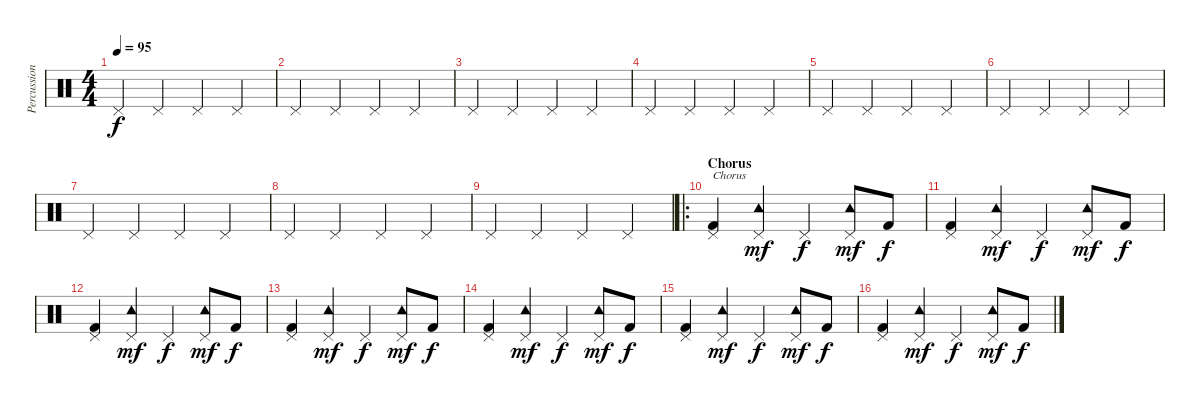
\track ("Percussion" "Percussion") {instrument percussion}
\staff {score}
\articulation defaults
\ts (4 4)
\tempo 95
\clef neutral
\ks c "Pedal Hi-Hat (hit)".4{dy f} "Pedal Hi-Hat (hit)".4 "Pedal Hi-Hat (hit)".4 "Pedal Hi-Hat (hit)".4
|
"Pedal Hi-Hat (hit)".4 "Pedal Hi-Hat (hit)".4 "Pedal Hi-Hat (hit)".4 "Pedal Hi-Hat (hit)".4 |
"Pedal Hi-Hat (hit)".4 "Pedal Hi-Hat (hit)".4 "Pedal Hi-Hat (hit)".4 "Pedal Hi-Hat (hit)".4 |
"Pedal Hi-Hat (hit)".4 "Pedal Hi-Hat (hit)".4 "Pedal Hi-Hat (hit)".4 "Pedal Hi-Hat (hit)".4 |
"Pedal Hi-Hat (hit)".4 "Pedal Hi-Hat (hit)".4 "Pedal Hi-Hat (hit)".4 "Pedal Hi-Hat (hit)".4 |
"Pedal Hi-Hat (hit)".4 "Pedal Hi-Hat (hit)".4 "Pedal Hi-Hat (hit)".4 "Pedal Hi-Hat (hit)".4 |
"Pedal Hi-Hat (hit)".4 "Pedal Hi-Hat (hit)".4 "Pedal Hi-Hat (hit)".4 "Pedal Hi-Hat (hit)".4 |
"Pedal Hi-Hat (hit)".4 "Pedal Hi-Hat (hit)".4 "Pedal Hi-Hat (hit)".4 "Pedal Hi-Hat (hit)".4 |
"Pedal Hi-Hat (hit)".4 "Pedal Hi-Hat (hit)".4 "Pedal Hi-Hat (hit)".4 "Pedal Hi-Hat (hit)".4 |
\ro
\section ("" "Chorus")
("Pedal Hi-Hat (hit)" "Kick (hit) 2").4{txt "Chorus"} ("Tambourine (hit)" "Pedal Hi-Hat (hit)").4{dy mf} "Pedal Hi-Hat (hit)".4{dy f} ("Tambourine (hit)" "Pedal Hi-Hat (hit)").8{dy mf} "Kick (hit) 2".8{dy f} |
("Pedal Hi-Hat (hit)" "Kick (hit) 2").4 ("Tambourine (hit)" "Pedal Hi-Hat (hit)").4{dy mf} "Pedal Hi-Hat (hit)".4{dy f} ("Tambourine (hit)" "Pedal Hi-Hat (hit)").8{dy mf} "Kick (hit) 2".8{dy f} |
("Pedal Hi-Hat (hit)" "Kick (hit) 2").4 ("Tambourine (hit)" "Pedal Hi-Hat (hit)").4{dy mf} "Pedal Hi-Hat (hit)".4{dy f} ("Tambourine (hit)" "Pedal Hi-Hat (hit)").8{dy mf} "Kick (hit) 2".8{dy f} |
("Pedal Hi-Hat (hit)" "Kick (hit) 2").4 ("Tambourine (hit)" "Pedal Hi-Hat (hit)").4{dy mf} "Pedal Hi-Hat (hit)".4{dy f} ("Tambourine (hit)" "Pedal Hi-Hat (hit)").8{dy mf} "Kick (hit) 2".8{dy f} |
("Pedal Hi-Hat (hit)" "Kick (hit) 2").4 ("Tambourine (hit)" "Pedal Hi-Hat (hit)").4{dy mf} "Pedal Hi-Hat (hit)".4{dy f} ("Tambourine (hit)" "Pedal Hi-Hat (hit)").8{dy mf} "Kick (hit) 2".8{dy f} |
("Pedal Hi-Hat (hit)" "Kick (hit) 2").4 ("Tambourine (hit)" "Pedal Hi-Hat (hit)").4{dy mf} "Pedal Hi-Hat (hit)".4{dy f} ("Tambourine (hit)" "Pedal Hi-Hat (hit)").8{dy mf} "Kick (hit) 2".8{dy f} |
("Pedal Hi-Hat (hit)" "Kick (hit) 2").4 ("Tambourine (hit)" "Pedal Hi-Hat (hit)").4{dy mf} "Pedal Hi-Hat (hit)".4{dy f} ("Tambourine (hit)" "Pedal Hi-Hat (hit)").8{dy mf} "Kick (hit) 2".8{dy f}
